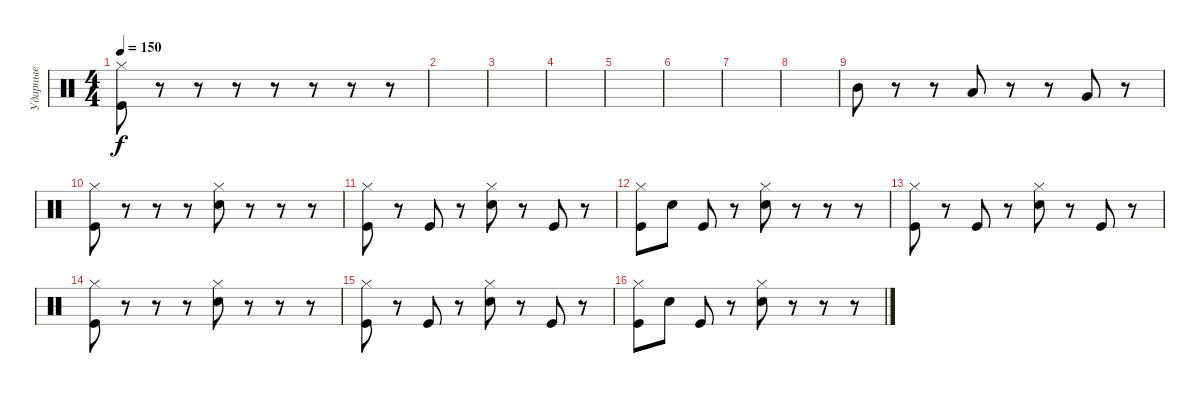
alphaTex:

\track ("Ударные" "Ударные") {instrument percussion}
\staff {score}
\articulation defaults
\ts (4 4)
\tempo 150
\clef neutral
\ks c
("Hi-Hat (closed)" "Kick (hit)").8{dy f} r.8 r.8 r.8 r.8 r.8 r.8 r.8 |
|
|
|
|
|
|
|
"Mid Tom (hit)".8 r.8 r.8 "Low Tom (hit)".8 r.8 r.8 "Very Low Tom (hit)".8 r.8 |
("Hi-Hat (closed)" "Kick (hit)").8 r.8 r.8 r.8 ("Hi-Hat (closed)" "Electric Snare (hit)").8 r.8 r.8 r.8 |
("Hi-Hat (closed)" "Kick (hit)").8 r.8 "Kick (hit)".8 r.8 ("Hi-Hat (closed)" "Electric Snare (hit)").8 r.8 "Kick (hit)".8 r.8 |
("Hi-Hat (closed)" "Kick (hit)").8 "Electric Snare (hit)".8 "Kick (hit)".8 r.8 ("Hi-Hat (closed)" "Electric Snare (hit)").8 r.8 r.8 r.8 |
("Hi-Hat (closed)" "Kick (hit)").8 r.8 "Kick (hit)".8 r.8 ("Hi-Hat (closed)" "Electric Snare (hit)").8 r.8 "Kick (hit)".8 r.8 |
("Hi-Hat (closed)" "Kick (hit)").8 r.8 r.8 r.8 ("Hi-Hat (closed)" "Electric Snare (hit)").8 r.8 r.8 r.8 |
("Hi-Hat (closed)" "Kick (hit)").8 r.8 "Kick (hit)".8 r.8 ("Hi-Hat (closed)" "Electric Snare (hit)").8 r.8 "Kick (hit)".8 r.8 |
("Hi-Hat (closed)" "Kick (hit)").8 "Electric Snare (hit)".8 "Kick (hit)".8 r.8 ("Hi-Hat (closed)" "Electric Snare (hit)").8 r.8 r.8 r.8
